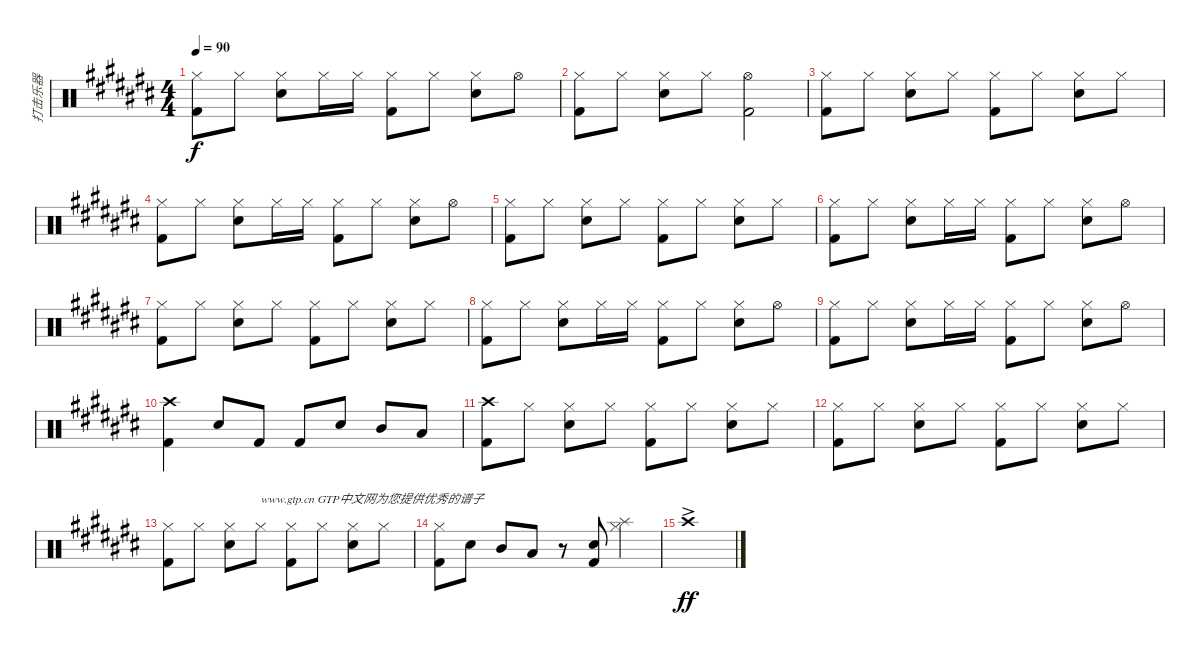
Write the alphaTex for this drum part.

\track ("打击乐器" "打击乐器") {instrument percussion}
\staff {score}
\articulation defaults
\ts (4 4)
\tempo 90
\clef neutral
\ks c#
("Hi-Hat (closed)" "Kick (hit) 2").8{dy f} "Hi-Hat (closed)".8 ("Hi-Hat (closed)" "Snare (hit) 2").8 "Hi-Hat (closed)".16 "Hi-Hat (closed)".16 ("Hi-Hat (closed)" "Kick (hit) 2").8 "Hi-Hat (closed)".8 ("Hi-Hat (closed)" "Snare (hit) 2").8 "Hi-Hat (open)".8 |
("Hi-Hat (closed)" "Kick (hit) 2").8 "Hi-Hat (closed)".8 ("Hi-Hat (closed)" "Snare (hit) 2").8 "Hi-Hat (closed)".8 ("Hi-Hat (open)" "Kick (hit) 2").2 |
("Hi-Hat (closed)" "Kick (hit) 2").8 "Hi-Hat (closed)".8 ("Hi-Hat (closed)" "Snare (hit) 2").8 "Hi-Hat (closed)".8 ("Hi-Hat (closed)" "Kick (hit) 2").8 "Hi-Hat (closed)".8 ("Hi-Hat (closed)" "Snare (hit) 2").8 "Hi-Hat (closed)".8 |
("Hi-Hat (closed)" "Kick (hit) 2").8 "Hi-Hat (closed)".8 ("Hi-Hat (closed)" "Snare (hit) 2").8 "Hi-Hat (closed)".16 "Hi-Hat (closed)".16 ("Hi-Hat (closed)" "Kick (hit) 2").8 "Hi-Hat (closed)".8 ("Hi-Hat (closed)" "Snare (hit) 2").8 "Hi-Hat (open)".8 |
("Hi-Hat (closed)" "Kick (hit) 2").8 "Hi-Hat (closed)".8 ("Hi-Hat (closed)" "Snare (hit) 2").8 "Hi-Hat (closed)".8 ("Hi-Hat (closed)" "Kick (hit) 2").8 "Hi-Hat (closed)".8 ("Hi-Hat (closed)" "Snare (hit) 2").8 "Hi-Hat (closed)".8 |
("Hi-Hat (closed)" "Kick (hit) 2").8 "Hi-Hat (closed)".8 ("Hi-Hat (closed)" "Snare (hit) 2").8 "Hi-Hat (closed)".16 "Hi-Hat (closed)".16 ("Hi-Hat (closed)" "Kick (hit) 2").8 "Hi-Hat (closed)".8 ("Hi-Hat (closed)" "Snare (hit) 2").8 "Hi-Hat (open)".8 |
("Hi-Hat (closed)" "Kick (hit) 2").8 "Hi-Hat (closed)".8 ("Hi-Hat (closed)" "Snare (hit) 2").8 "Hi-Hat (closed)".8 ("Hi-Hat (closed)" "Kick (hit) 2").8 "Hi-Hat (closed)".8 ("Hi-Hat (closed)" "Snare (hit) 2").8 "Hi-Hat (closed)".8 |
("Hi-Hat (closed)" "Kick (hit) 2").8 "Hi-Hat (closed)".8 ("Hi-Hat (closed)" "Snare (hit) 2").8 "Hi-Hat (closed)".16 "Hi-Hat (closed)".16 ("Hi-Hat (closed)" "Kick (hit) 2").8 "Hi-Hat (closed)".8 ("Hi-Hat (closed)" "Snare (hit) 2").8 "Hi-Hat (open)".8 |
("Hi-Hat (closed)" "Kick (hit) 2").8 "Hi-Hat (closed)".8 ("Hi-Hat (closed)" "Snare (hit) 2").8 "Hi-Hat (closed)".16 "Hi-Hat (closed)".16 ("Hi-Hat (closed)" "Kick (hit) 2").8 "Hi-Hat (closed)".8 ("Hi-Hat (closed)" "Snare (hit) 2").8 "Hi-Hat (open)".8 |
("Crash high (hit)" "Kick (hit) 2").4 "Snare (hit) 2".8 "Kick (hit) 2".8 "Kick (hit) 2".8 "Snare (hit) 2".8 "Mid Tom (hit)".8 "Low Tom (hit)".8 |
("Crash high (hit)" "Kick (hit) 2").8 "Hi-Hat (closed)".8 ("Hi-Hat (closed)" "Snare (hit) 2").8 "Hi-Hat (closed)".8 ("Hi-Hat (closed)" "Kick (hit) 2").8 "Hi-Hat (closed)".8 ("Hi-Hat (closed)" "Snare (hit) 2").8 "Hi-Hat (closed)".8 |
("Hi-Hat (closed)" "Kick (hit) 2").8 "Hi-Hat (closed)".8 ("Hi-Hat (closed)" "Snare (hit) 2").8 "Hi-Hat (closed)".8 ("Hi-Hat (closed)" "Kick (hit) 2").8 "Hi-Hat (closed)".8 ("Hi-Hat (closed)" "Snare (hit) 2").8 "Hi-Hat (closed)".8 |
("Hi-Hat (closed)" "Kick (hit) 2").8 "Hi-Hat (closed)".8 ("Hi-Hat (closed)" "Snare (hit) 2").8 "Hi-Hat (closed)".8{txt "www.gtp.cn GTP中文网为您提供优秀的谱子"} ("Hi-Hat (closed)" "Kick (hit) 2").8 "Hi-Hat (closed)".8 ("Hi-Hat (closed)" "Snare (hit) 2").8 "Hi-Hat (closed)".8 |
("Hi-Hat (closed)" "Kick (hit) 2").8 "Snare (hit) 2".8 "Mid Tom (hit)".8 "Low Tom (hit)".8 r.8 ("Snare (hit) 2" "Kick (hit) 2").8 ("Hi-Hat (closed)" "Splash (hit)").4 |
"Crash high (hit)"{ac}.1{dy ff}
